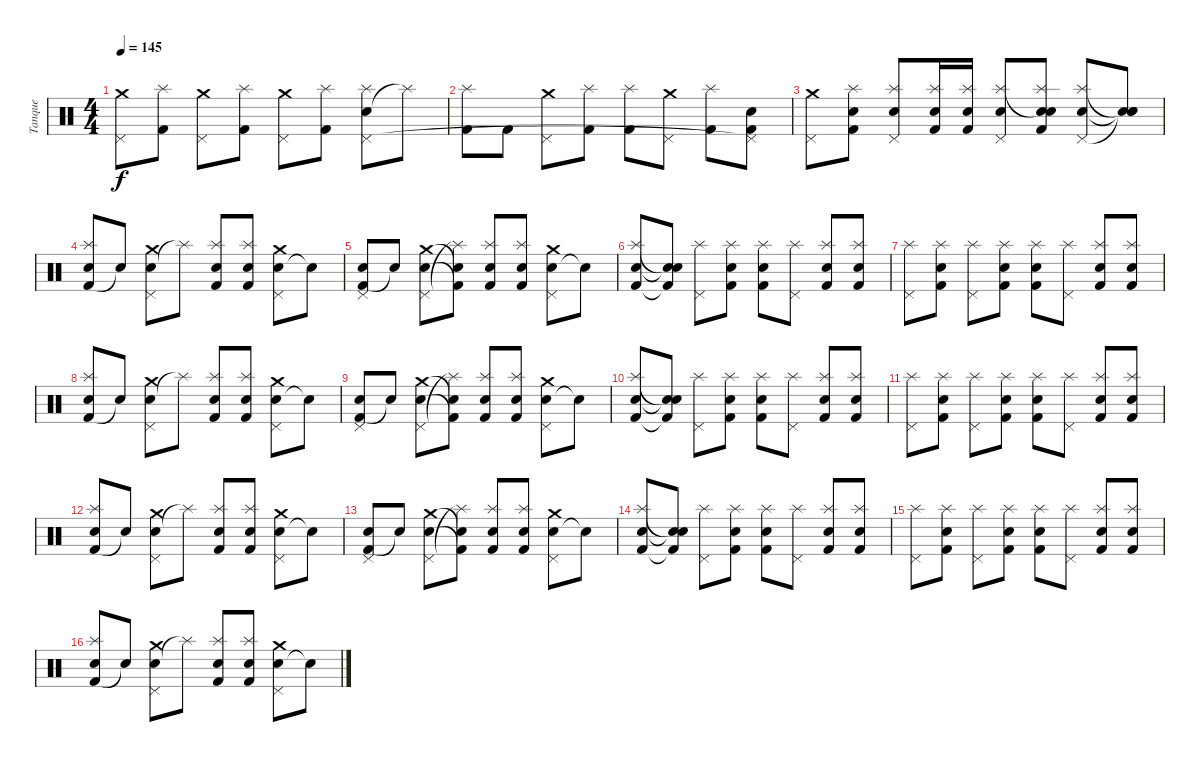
\track ("Tanque" "Tanque") {instrument percussion}
\staff {score}
\articulation defaults
\ts (4 4)
\tempo 145
\clef neutral
\ks c
("Crash medium (hit)" "Pedal Hi-Hat (hit)").8{dy f} ("Kick (hit) 2" "Splash (hit)").8 ("Crash medium (hit)" "Pedal Hi-Hat (hit)").8 ("Kick (hit) 2" "Splash (hit)").8 ("Crash medium (hit)" "Pedal Hi-Hat (hit)").8 ("Kick (hit) 2" "Splash (hit)").8 ("Snare (hit) 2" "Splash (hit)" "Pedal Hi-Hat (hit)").8 "Splash (hit)"{t}.8 |
("Kick (hit) 2" "Splash (hit)").8 "Kick (hit) 2".8 ("Crash medium (hit)" "Pedal Hi-Hat (hit)").8 ("Kick (hit) 2" "Splash (hit)").8 ("Kick (hit) 2" "Splash (hit)").8 ("Crash medium (hit)" "Pedal Hi-Hat (hit)").8 ("Kick (hit) 2" "Splash (hit)").8 ("Kick (hit) 2" "Snare (hit) 2" "Pedal Hi-Hat (hit)"{t}).8 |
("Crash medium (hit)" "Pedal Hi-Hat (hit)").8 ("Kick (hit) 2" "Electric Snare (hit)" "Splash (hit)").8 ("Snare (hit) 2" "Splash (hit)" "Pedal Hi-Hat (hit)").8 ("Kick (hit) 2" "Electric Snare (hit)" "Splash (hit)").16 ("Kick (hit) 2" "Electric Snare (hit)" "Splash (hit)").16 ("Snare (hit) 2" "Splash (hit)" "Pedal Hi-Hat (hit)").8 ("Kick (hit) 2" "Snare (hit)"{t} "Electric Snare (hit)" "Splash (hit)").8 ("Snare (hit) 2" "Splash (hit)" "Pedal Hi-Hat (hit)").8 ("Snare (hit)"{t} "Snare (hit)"{t} "Snare (hit)"{t}).8 |
("Kick (hit) 2" "Electric Snare (hit)" "Splash (hit)").8 "Snare (hit)"{t}.8 ("Snare (hit) 2" "Crash medium (hit)" "Pedal Hi-Hat (hit)").8 "Splash (hit)"{t}.8 ("Kick (hit) 2" "Electric Snare (hit)" "Splash (hit)").8 ("Kick (hit) 2" "Electric Snare (hit)" "Splash (hit)").8 ("Snare (hit) 2" "Crash medium (hit)" "Pedal Hi-Hat (hit)").8 "Snare (hit)"{t}.8 |
("Kick (hit) 2" "Electric Snare (hit)" "Pedal Hi-Hat (hit)").8 "Snare (hit)"{t}.8 ("Snare (hit) 2" "Crash medium (hit)" "Pedal Hi-Hat (hit)").8 ("Kick (hit) 2"{t} "Electric Snare (hit)"{t} "Splash (hit)"{t}).8 ("Kick (hit) 2" "Electric Snare (hit)" "Splash (hit)").8 ("Kick (hit) 2" "Electric Snare (hit)" "Splash (hit)").8 ("Snare (hit) 2" "Crash medium (hit)" "Pedal Hi-Hat (hit)").8 "Snare (hit)"{t}.8 |
("Kick (hit) 2" "Snare (hit) 2" "Splash (hit)").8 ("Kick (hit) 2"{t} "Snare (hit)"{t} "Snare (hit)"{t}).8 ("Pedal Hi-Hat (hit)" "Splash (hit)").8 ("Kick (hit) 2" "Snare (hit) 2" "Splash (hit)").8 ("Kick (hit) 2" "Snare (hit) 2" "Splash (hit)").8 ("Pedal Hi-Hat (hit)" "Splash (hit)").8 ("Kick (hit) 2" "Snare (hit) 2" "Splash (hit)").8 ("Kick (hit) 2" "Snare (hit) 2" "Splash (hit)").8 |
("Pedal Hi-Hat (hit)" "Splash (hit)").8 ("Kick (hit) 2" "Snare (hit) 2" "Splash (hit)").8 ("Pedal Hi-Hat (hit)" "Splash (hit)").8 ("Kick (hit) 2" "Snare (hit) 2" "Splash (hit)").8 ("Kick (hit) 2" "Snare (hit) 2" "Splash (hit)").8 ("Pedal Hi-Hat (hit)" "Splash (hit)").8 ("Kick (hit) 2" "Snare (hit) 2" "Splash (hit)").8 ("Kick (hit) 2" "Snare (hit) 2" "Splash (hit)").8 |
("Kick (hit) 2" "Electric Snare (hit)" "Splash (hit)").8 "Snare (hit)"{t}.8 ("Snare (hit) 2" "Crash medium (hit)" "Pedal Hi-Hat (hit)").8 "Splash (hit)"{t}.8 ("Kick (hit) 2" "Electric Snare (hit)" "Splash (hit)").8 ("Kick (hit) 2" "Electric Snare (hit)" "Splash (hit)").8 ("Snare (hit) 2" "Crash medium (hit)" "Pedal Hi-Hat (hit)").8 "Snare (hit)"{t}.8 |
("Kick (hit) 2" "Electric Snare (hit)" "Pedal Hi-Hat (hit)").8 "Snare (hit)"{t}.8 ("Snare (hit) 2" "Crash medium (hit)" "Pedal Hi-Hat (hit)").8 ("Kick (hit) 2"{t} "Electric Snare (hit)"{t} "Splash (hit)"{t}).8 ("Kick (hit) 2" "Electric Snare (hit)" "Splash (hit)").8 ("Kick (hit) 2" "Electric Snare (hit)" "Splash (hit)").8 ("Snare (hit) 2" "Crash medium (hit)" "Pedal Hi-Hat (hit)").8 "Snare (hit)"{t}.8 |
("Kick (hit) 2" "Snare (hit) 2" "Splash (hit)").8 ("Kick (hit) 2"{t} "Snare (hit)"{t} "Snare (hit)"{t}).8 ("Pedal Hi-Hat (hit)" "Splash (hit)").8 ("Kick (hit) 2" "Snare (hit) 2" "Splash (hit)").8 ("Kick (hit) 2" "Snare (hit) 2" "Splash (hit)").8 ("Pedal Hi-Hat (hit)" "Splash (hit)").8 ("Kick (hit) 2" "Snare (hit) 2" "Splash (hit)").8 ("Kick (hit) 2" "Snare (hit) 2" "Splash (hit)").8 |
("Pedal Hi-Hat (hit)" "Splash (hit)").8 ("Kick (hit) 2" "Snare (hit) 2" "Splash (hit)").8 ("Pedal Hi-Hat (hit)" "Splash (hit)").8 ("Kick (hit) 2" "Snare (hit) 2" "Splash (hit)").8 ("Kick (hit) 2" "Snare (hit) 2" "Splash (hit)").8 ("Pedal Hi-Hat (hit)" "Splash (hit)").8 ("Kick (hit) 2" "Snare (hit) 2" "Splash (hit)").8 ("Kick (hit) 2" "Snare (hit) 2" "Splash (hit)").8 |
("Kick (hit) 2" "Electric Snare (hit)" "Splash (hit)").8 "Snare (hit)"{t}.8 ("Snare (hit) 2" "Crash medium (hit)" "Pedal Hi-Hat (hit)").8 "Splash (hit)"{t}.8 ("Kick (hit) 2" "Electric Snare (hit)" "Splash (hit)").8 ("Kick (hit) 2" "Electric Snare (hit)" "Splash (hit)").8 ("Snare (hit) 2" "Crash medium (hit)" "Pedal Hi-Hat (hit)").8 "Snare (hit)"{t}.8 |
("Kick (hit) 2" "Electric Snare (hit)" "Pedal Hi-Hat (hit)").8 "Snare (hit)"{t}.8 ("Snare (hit) 2" "Crash medium (hit)" "Pedal Hi-Hat (hit)").8 ("Kick (hit) 2"{t} "Electric Snare (hit)"{t} "Splash (hit)"{t}).8 ("Kick (hit) 2" "Electric Snare (hit)" "Splash (hit)").8 ("Kick (hit) 2" "Electric Snare (hit)" "Splash (hit)").8 ("Snare (hit) 2" "Crash medium (hit)" "Pedal Hi-Hat (hit)").8 "Snare (hit)"{t}.8 |
("Kick (hit) 2" "Snare (hit) 2" "Splash (hit)").8 ("Kick (hit) 2"{t} "Snare (hit)"{t} "Snare (hit)"{t}).8 ("Pedal Hi-Hat (hit)" "Splash (hit)").8 ("Kick (hit) 2" "Snare (hit) 2" "Splash (hit)").8 ("Kick (hit) 2" "Snare (hit) 2" "Splash (hit)").8 ("Pedal Hi-Hat (hit)" "Splash (hit)").8 ("Kick (hit) 2" "Snare (hit) 2" "Splash (hit)").8 ("Kick (hit) 2" "Snare (hit) 2" "Splash (hit)").8 |
("Pedal Hi-Hat (hit)" "Splash (hit)").8 ("Kick (hit) 2" "Snare (hit) 2" "Splash (hit)").8 ("Pedal Hi-Hat (hit)" "Splash (hit)").8 ("Kick (hit) 2" "Snare (hit) 2" "Splash (hit)").8 ("Kick (hit) 2" "Snare (hit) 2" "Splash (hit)").8 ("Pedal Hi-Hat (hit)" "Splash (hit)").8 ("Kick (hit) 2" "Snare (hit) 2" "Splash (hit)").8 ("Kick (hit) 2" "Snare (hit) 2" "Splash (hit)").8 |
("Kick (hit) 2" "Electric Snare (hit)" "Splash (hit)").8 "Snare (hit)"{t}.8 ("Snare (hit) 2" "Crash medium (hit)" "Pedal Hi-Hat (hit)").8 "Splash (hit)"{t}.8 ("Kick (hit) 2" "Electric Snare (hit)" "Splash (hit)").8 ("Kick (hit) 2" "Electric Snare (hit)" "Splash (hit)").8 ("Snare (hit) 2" "Crash medium (hit)" "Pedal Hi-Hat (hit)").8 "Snare (hit)"{t}.8
